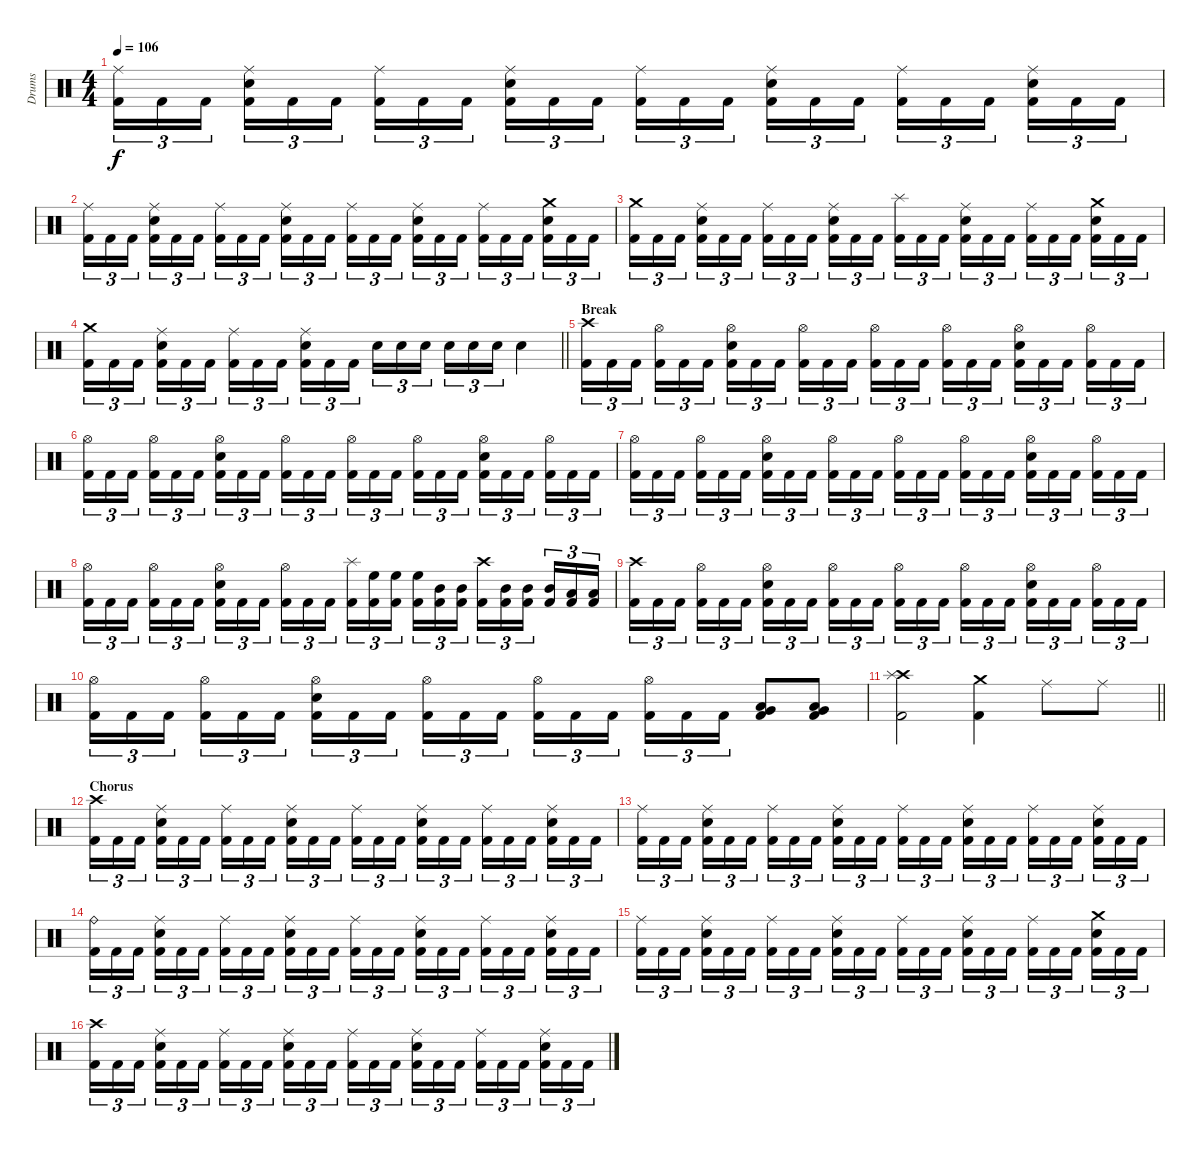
\track ("Drums" "Drums") {instrument percussion}
\staff {score}
\articulation defaults
\ts (4 4)
\tempo 106
\clef neutral
\ks c
("Ride (middle)" "Kick (hit) 2").16{tu (3 2) dy f} "Kick (hit) 2".16{tu (3 2)} "Kick (hit) 2".16{tu (3 2)} ("Ride (middle)" "Electric Snare (hit)" "Kick (hit) 2").16{tu (3 2)} "Kick (hit) 2".16{tu (3 2)} "Kick (hit) 2".16{tu (3 2)} ("Ride (middle)" "Kick (hit) 2").16{tu (3 2)} "Kick (hit) 2".16{tu (3 2)} "Kick (hit) 2".16{tu (3 2)} ("Ride (middle)" "Electric Snare (hit)" "Kick (hit) 2").16{tu (3 2)} "Kick (hit) 2".16{tu (3 2)} "Kick (hit) 2".16{tu (3 2)} ("Ride (middle)" "Kick (hit) 2").16{tu (3 2)} "Kick (hit) 2".16{tu (3 2)} "Kick (hit) 2".16{tu (3 2)} ("Ride (middle)" "Electric Snare (hit)" "Kick (hit) 2").16{tu (3 2)} "Kick (hit) 2".16{tu (3 2)} "Kick (hit) 2".16{tu (3 2)} ("Ride (middle)" "Kick (hit) 2").16{tu (3 2)} "Kick (hit) 2".16{tu (3 2)} "Kick (hit) 2".16{tu (3 2)} ("Ride (middle)" "Electric Snare (hit)" "Kick (hit) 2").16{tu (3 2)} "Kick (hit) 2".16{tu (3 2)} "Kick (hit) 2".16{tu (3 2)} |
("Ride (middle)" "Kick (hit) 2").16{tu (3 2)} "Kick (hit) 2".16{tu (3 2)} "Kick (hit) 2".16{tu (3 2)} ("Ride (middle)" "Electric Snare (hit)" "Kick (hit) 2").16{tu (3 2)} "Kick (hit) 2".16{tu (3 2)} "Kick (hit) 2".16{tu (3 2)} ("Ride (middle)" "Kick (hit) 2").16{tu (3 2)} "Kick (hit) 2".16{tu (3 2)} "Kick (hit) 2".16{tu (3 2)} ("Ride (middle)" "Electric Snare (hit)" "Kick (hit) 2").16{tu (3 2)} "Kick (hit) 2".16{tu (3 2)} "Kick (hit) 2".16{tu (3 2)} ("Ride (middle)" "Kick (hit) 2").16{tu (3 2)} "Kick (hit) 2".16{tu (3 2)} "Kick (hit) 2".16{tu (3 2)} ("Ride (middle)" "Electric Snare (hit)" "Kick (hit) 2").16{tu (3 2)} "Kick (hit) 2".16{tu (3 2)} "Kick (hit) 2".16{tu (3 2)} ("Ride (middle)" "Kick (hit) 2").16{tu (3 2)} "Kick (hit) 2".16{tu (3 2)} "Kick (hit) 2".16{tu (3 2)} ("Crash medium (hit)" "Electric Snare (hit)" "Kick (hit) 2").16{tu (3 2)} "Kick (hit) 2".16{tu (3 2)} "Kick (hit) 2".16{tu (3 2)} |
("Crash medium (hit)" "Kick (hit) 2").16{tu (3 2)} "Kick (hit) 2".16{tu (3 2)} "Kick (hit) 2".16{tu (3 2)} ("Ride (middle)" "Electric Snare (hit)" "Kick (hit) 2").16{tu (3 2)} "Kick (hit) 2".16{tu (3 2)} "Kick (hit) 2".16{tu (3 2)} ("Ride (middle)" "Kick (hit) 2").16{tu (3 2)} "Kick (hit) 2".16{tu (3 2)} "Kick (hit) 2".16{tu (3 2)} ("Ride (middle)" "Electric Snare (hit)" "Kick (hit) 2").16{tu (3 2)} "Kick (hit) 2".16{tu (3 2)} "Kick (hit) 2".16{tu (3 2)} ("Splash (hit)" "Kick (hit) 2").16{tu (3 2)} "Kick (hit) 2".16{tu (3 2)} "Kick (hit) 2".16{tu (3 2)} ("Ride (middle)" "Electric Snare (hit)" "Kick (hit) 2").16{tu (3 2)} "Kick (hit) 2".16{tu (3 2)} "Kick (hit) 2".16{tu (3 2)} ("Ride (middle)" "Kick (hit) 2").16{tu (3 2)} "Kick (hit) 2".16{tu (3 2)} "Kick (hit) 2".16{tu (3 2)} ("Crash medium (hit)" "Electric Snare (hit)" "Kick (hit) 2").16{tu (3 2)} "Kick (hit) 2".16{tu (3 2)} "Kick (hit) 2".16{tu (3 2)} |
\barLineRight lightlight
("Crash medium (hit)" "Kick (hit) 2").16{tu (3 2)} "Kick (hit) 2".16{tu (3 2)} "Kick (hit) 2".16{tu (3 2)} ("Ride (middle)" "Electric Snare (hit)" "Kick (hit) 2").16{tu (3 2)} "Kick (hit) 2".16{tu (3 2)} "Kick (hit) 2".16{tu (3 2)} ("Ride (middle)" "Kick (hit) 2").16{tu (3 2)} "Kick (hit) 2".16{tu (3 2)} "Kick (hit) 2".16{tu (3 2)} ("Ride (middle)" "Electric Snare (hit)" "Kick (hit) 2").16{tu (3 2)} "Kick (hit) 2".16{tu (3 2)} "Kick (hit) 2".16{tu (3 2)} "Electric Snare (hit)".16{tu (3 2)} "Electric Snare (hit)".16{tu (3 2)} "Electric Snare (hit)".16{tu (3 2)} "Electric Snare (hit)".16{tu (3 2)} "Electric Snare (hit)".16{tu (3 2)} "Electric Snare (hit)".16{tu (3 2)} "Electric Snare (hit)".4 |
\section ("" "Break")
("Crash high (hit)" "Kick (hit) 2").16{tu (3 2)} "Kick (hit) 2".16{tu (3 2)} "Kick (hit) 2".16{tu (3 2)} ("Hi-Hat (open)" "Kick (hit) 2").16{tu (3 2)} "Kick (hit) 2".16{tu (3 2)} "Kick (hit) 2".16{tu (3 2)} ("Hi-Hat (open)" "Electric Snare (hit)" "Kick (hit) 2").16{tu (3 2)} "Kick (hit) 2".16{tu (3 2)} "Kick (hit) 2".16{tu (3 2)} ("Hi-Hat (open)" "Kick (hit) 2").16{tu (3 2)} "Kick (hit) 2".16{tu (3 2)} "Kick (hit) 2".16{tu (3 2)} ("Hi-Hat (open)" "Kick (hit) 2").16{tu (3 2)} "Kick (hit) 2".16{tu (3 2)} "Kick (hit) 2".16{tu (3 2)} ("Hi-Hat (open)" "Kick (hit) 2").16{tu (3 2)} "Kick (hit) 2".16{tu (3 2)} "Kick (hit) 2".16{tu (3 2)} ("Hi-Hat (open)" "Electric Snare (hit)" "Kick (hit) 2").16{tu (3 2)} "Kick (hit) 2".16{tu (3 2)} "Kick (hit) 2".16{tu (3 2)} ("Hi-Hat (open)" "Kick (hit) 2").16{tu (3 2)} "Kick (hit) 2".16{tu (3 2)} "Kick (hit) 2".16{tu (3 2)} |
("Hi-Hat (open)" "Kick (hit) 2").16{tu (3 2)} "Kick (hit) 2".16{tu (3 2)} "Kick (hit) 2".16{tu (3 2)} ("Hi-Hat (open)" "Kick (hit) 2").16{tu (3 2)} "Kick (hit) 2".16{tu (3 2)} "Kick (hit) 2".16{tu (3 2)} ("Hi-Hat (open)" "Electric Snare (hit)" "Kick (hit) 2").16{tu (3 2)} "Kick (hit) 2".16{tu (3 2)} "Kick (hit) 2".16{tu (3 2)} ("Hi-Hat (open)" "Kick (hit) 2").16{tu (3 2)} "Kick (hit) 2".16{tu (3 2)} "Kick (hit) 2".16{tu (3 2)} ("Hi-Hat (open)" "Kick (hit) 2").16{tu (3 2)} "Kick (hit) 2".16{tu (3 2)} "Kick (hit) 2".16{tu (3 2)} ("Hi-Hat (open)" "Kick (hit) 2").16{tu (3 2)} "Kick (hit) 2".16{tu (3 2)} "Kick (hit) 2".16{tu (3 2)} ("Hi-Hat (open)" "Electric Snare (hit)" "Kick (hit) 2").16{tu (3 2)} "Kick (hit) 2".16{tu (3 2)} "Kick (hit) 2".16{tu (3 2)} ("Hi-Hat (open)" "Kick (hit) 2").16{tu (3 2)} "Kick (hit) 2".16{tu (3 2)} "Kick (hit) 2".16{tu (3 2)} |
("Hi-Hat (open)" "Kick (hit) 2").16{tu (3 2)} "Kick (hit) 2".16{tu (3 2)} "Kick (hit) 2".16{tu (3 2)} ("Hi-Hat (open)" "Kick (hit) 2").16{tu (3 2)} "Kick (hit) 2".16{tu (3 2)} "Kick (hit) 2".16{tu (3 2)} ("Hi-Hat (open)" "Electric Snare (hit)" "Kick (hit) 2").16{tu (3 2)} "Kick (hit) 2".16{tu (3 2)} "Kick (hit) 2".16{tu (3 2)} ("Hi-Hat (open)" "Kick (hit) 2").16{tu (3 2)} "Kick (hit) 2".16{tu (3 2)} "Kick (hit) 2".16{tu (3 2)} ("Hi-Hat (open)" "Kick (hit) 2").16{tu (3 2)} "Kick (hit) 2".16{tu (3 2)} "Kick (hit) 2".16{tu (3 2)} ("Hi-Hat (open)" "Kick (hit) 2").16{tu (3 2)} "Kick (hit) 2".16{tu (3 2)} "Kick (hit) 2".16{tu (3 2)} ("Hi-Hat (open)" "Electric Snare (hit)" "Kick (hit) 2").16{tu (3 2)} "Kick (hit) 2".16{tu (3 2)} "Kick (hit) 2".16{tu (3 2)} ("Hi-Hat (open)" "Kick (hit) 2").16{tu (3 2)} "Kick (hit) 2".16{tu (3 2)} "Kick (hit) 2".16{tu (3 2)} |
("Hi-Hat (open)" "Kick (hit) 2").16{tu (3 2)} "Kick (hit) 2".16{tu (3 2)} "Kick (hit) 2".16{tu (3 2)} ("Hi-Hat (open)" "Kick (hit) 2").16{tu (3 2)} "Kick (hit) 2".16{tu (3 2)} "Kick (hit) 2".16{tu (3 2)} ("Hi-Hat (open)" "Electric Snare (hit)" "Kick (hit) 2").16{tu (3 2)} "Kick (hit) 2".16{tu (3 2)} "Kick (hit) 2".16{tu (3 2)} ("Hi-Hat (open)" "Kick (hit) 2").16{tu (3 2)} "Kick (hit) 2".16{tu (3 2)} "Kick (hit) 2".16{tu (3 2)} ("Splash (hit)" "Kick (hit) 2").16{tu (3 2)} ("High Floor Tom (hit)" "Kick (hit) 2").16{tu (3 2)} ("High Floor Tom (hit)" "Kick (hit) 2").16{tu (3 2)} ("High Floor Tom (hit)" "Kick (hit) 2").16{tu (3 2)} ("Mid Tom (hit)" "Kick (hit) 2").16{tu (3 2)} ("Mid Tom (hit)" "Kick (hit) 2").16{tu (3 2)} ("Crash high (hit)" "Kick (hit) 2").16{tu (3 2)} ("Mid Tom (hit)" "Kick (hit) 2").16{tu (3 2)} ("Mid Tom (hit)" "Kick (hit) 2").16{tu (3 2)} ("Mid Tom (hit)" "Kick (hit) 2").16{tu (3 2)} ("Low Tom (hit)" "Kick (hit) 2").16{tu (3 2)} ("Low Tom (hit)" "Kick (hit) 2").16{tu (3 2)} |
("Crash high (hit)" "Kick (hit) 2").16{tu (3 2)} "Kick (hit) 2".16{tu (3 2)} "Kick (hit) 2".16{tu (3 2)} ("Hi-Hat (open)" "Kick (hit) 2").16{tu (3 2)} "Kick (hit) 2".16{tu (3 2)} "Kick (hit) 2".16{tu (3 2)} ("Hi-Hat (open)" "Electric Snare (hit)" "Kick (hit) 2").16{tu (3 2)} "Kick (hit) 2".16{tu (3 2)} "Kick (hit) 2".16{tu (3 2)} ("Hi-Hat (open)" "Kick (hit) 2").16{tu (3 2)} "Kick (hit) 2".16{tu (3 2)} "Kick (hit) 2".16{tu (3 2)} ("Hi-Hat (open)" "Kick (hit) 2").16{tu (3 2)} "Kick (hit) 2".16{tu (3 2)} "Kick (hit) 2".16{tu (3 2)} ("Hi-Hat (open)" "Kick (hit) 2").16{tu (3 2)} "Kick (hit) 2".16{tu (3 2)} "Kick (hit) 2".16{tu (3 2)} ("Hi-Hat (open)" "Electric Snare (hit)" "Kick (hit) 2").16{tu (3 2)} "Kick (hit) 2".16{tu (3 2)} "Kick (hit) 2".16{tu (3 2)} ("Hi-Hat (open)" "Kick (hit) 2").16{tu (3 2)} "Kick (hit) 2".16{tu (3 2)} "Kick (hit) 2".16{tu (3 2)} |
("Hi-Hat (open)" "Kick (hit) 2").16{tu (3 2)} "Kick (hit) 2".16{tu (3 2)} "Kick (hit) 2".16{tu (3 2)} ("Hi-Hat (open)" "Kick (hit) 2").16{tu (3 2)} "Kick (hit) 2".16{tu (3 2)} "Kick (hit) 2".16{tu (3 2)} ("Hi-Hat (open)" "Electric Snare (hit)" "Kick (hit) 2").16{tu (3 2)} "Kick (hit) 2".16{tu (3 2)} "Kick (hit) 2".16{tu (3 2)} ("Hi-Hat (open)" "Kick (hit) 2").16{tu (3 2)} "Kick (hit) 2".16{tu (3 2)} "Kick (hit) 2".16{tu (3 2)} ("Hi-Hat (open)" "Kick (hit) 2").16{tu (3 2)} "Kick (hit) 2".16{tu (3 2)} "Kick (hit) 2".16{tu (3 2)} ("Hi-Hat (open)" "Kick (hit) 2").16{tu (3 2)} "Kick (hit) 2".16{tu (3 2)} "Kick (hit) 2".16{tu (3 2)} ("Low Tom (hit)" "Very Low Tom (hit)" "Kick (hit) 2").8 ("Low Tom (hit)" "Very Low Tom (hit)" "Kick (hit) 2").8 |
\barLineRight lightlight
("Crash high (hit)" "Splash (hit)" "Kick (hit) 2").2 ("Crash medium (hit)" "Kick (hit) 2").4 "Ride (middle)".8 "Ride (middle)".8 |
\section ("" "Chorus")
("Crash high (hit)" "Kick (hit) 2").16{tu (3 2)} "Kick (hit) 2".16{tu (3 2)} "Kick (hit) 2".16{tu (3 2)} ("Ride (middle)" "Electric Snare (hit)" "Kick (hit) 2").16{tu (3 2)} "Kick (hit) 2".16{tu (3 2)} "Kick (hit) 2".16{tu (3 2)} ("Ride (middle)" "Kick (hit) 2").16{tu (3 2)} "Kick (hit) 2".16{tu (3 2)} "Kick (hit) 2".16{tu (3 2)} ("Ride (middle)" "Electric Snare (hit)" "Kick (hit) 2").16{tu (3 2)} "Kick (hit) 2".16{tu (3 2)} "Kick (hit) 2".16{tu (3 2)} ("Ride (middle)" "Kick (hit) 2").16{tu (3 2)} "Kick (hit) 2".16{tu (3 2)} "Kick (hit) 2".16{tu (3 2)} ("Ride (middle)" "Electric Snare (hit)" "Kick (hit) 2").16{tu (3 2)} "Kick (hit) 2".16{tu (3 2)} "Kick (hit) 2".16{tu (3 2)} ("Ride (middle)" "Kick (hit) 2").16{tu (3 2)} "Kick (hit) 2".16{tu (3 2)} "Kick (hit) 2".16{tu (3 2)} ("Ride (middle)" "Electric Snare (hit)" "Kick (hit) 2").16{tu (3 2)} "Kick (hit) 2".16{tu (3 2)} "Kick (hit) 2".16{tu (3 2)} |
("Ride (middle)" "Kick (hit) 2").16{tu (3 2)} "Kick (hit) 2".16{tu (3 2)} "Kick (hit) 2".16{tu (3 2)} ("Ride (middle)" "Electric Snare (hit)" "Kick (hit) 2").16{tu (3 2)} "Kick (hit) 2".16{tu (3 2)} "Kick (hit) 2".16{tu (3 2)} ("Ride (middle)" "Kick (hit) 2").16{tu (3 2)} "Kick (hit) 2".16{tu (3 2)} "Kick (hit) 2".16{tu (3 2)} ("Ride (middle)" "Electric Snare (hit)" "Kick (hit) 2").16{tu (3 2)} "Kick (hit) 2".16{tu (3 2)} "Kick (hit) 2".16{tu (3 2)} ("Ride (middle)" "Kick (hit) 2").16{tu (3 2)} "Kick (hit) 2".16{tu (3 2)} "Kick (hit) 2".16{tu (3 2)} ("Ride (middle)" "Electric Snare (hit)" "Kick (hit) 2").16{tu (3 2)} "Kick (hit) 2".16{tu (3 2)} "Kick (hit) 2".16{tu (3 2)} ("Ride (middle)" "Kick (hit) 2").16{tu (3 2)} "Kick (hit) 2".16{tu (3 2)} "Kick (hit) 2".16{tu (3 2)} ("Ride (middle)" "Electric Snare (hit)" "Kick (hit) 2").16{tu (3 2)} "Kick (hit) 2".16{tu (3 2)} "Kick (hit) 2".16{tu (3 2)} |
("Ride (bell)" "Kick (hit) 2").16{tu (3 2)} "Kick (hit) 2".16{tu (3 2)} "Kick (hit) 2".16{tu (3 2)} ("Ride (middle)" "Electric Snare (hit)" "Kick (hit) 2").16{tu (3 2)} "Kick (hit) 2".16{tu (3 2)} "Kick (hit) 2".16{tu (3 2)} ("Ride (middle)" "Kick (hit) 2").16{tu (3 2)} "Kick (hit) 2".16{tu (3 2)} "Kick (hit) 2".16{tu (3 2)} ("Ride (middle)" "Electric Snare (hit)" "Kick (hit) 2").16{tu (3 2)} "Kick (hit) 2".16{tu (3 2)} "Kick (hit) 2".16{tu (3 2)} ("Ride (middle)" "Kick (hit) 2").16{tu (3 2)} "Kick (hit) 2".16{tu (3 2)} "Kick (hit) 2".16{tu (3 2)} ("Ride (middle)" "Electric Snare (hit)" "Kick (hit) 2").16{tu (3 2)} "Kick (hit) 2".16{tu (3 2)} "Kick (hit) 2".16{tu (3 2)} ("Ride (middle)" "Kick (hit) 2").16{tu (3 2)} "Kick (hit) 2".16{tu (3 2)} "Kick (hit) 2".16{tu (3 2)} ("Ride (middle)" "Electric Snare (hit)" "Kick (hit) 2").16{tu (3 2)} "Kick (hit) 2".16{tu (3 2)} "Kick (hit) 2".16{tu (3 2)} |
("Ride (middle)" "Kick (hit) 2").16{tu (3 2)} "Kick (hit) 2".16{tu (3 2)} "Kick (hit) 2".16{tu (3 2)} ("Ride (middle)" "Electric Snare (hit)" "Kick (hit) 2").16{tu (3 2)} "Kick (hit) 2".16{tu (3 2)} "Kick (hit) 2".16{tu (3 2)} ("Ride (middle)" "Kick (hit) 2").16{tu (3 2)} "Kick (hit) 2".16{tu (3 2)} "Kick (hit) 2".16{tu (3 2)} ("Ride (middle)" "Electric Snare (hit)" "Kick (hit) 2").16{tu (3 2)} "Kick (hit) 2".16{tu (3 2)} "Kick (hit) 2".16{tu (3 2)} ("Ride (middle)" "Kick (hit) 2").16{tu (3 2)} "Kick (hit) 2".16{tu (3 2)} "Kick (hit) 2".16{tu (3 2)} ("Ride (middle)" "Electric Snare (hit)" "Kick (hit) 2").16{tu (3 2)} "Kick (hit) 2".16{tu (3 2)} "Kick (hit) 2".16{tu (3 2)} ("Ride (middle)" "Kick (hit) 2").16{tu (3 2)} "Kick (hit) 2".16{tu (3 2)} "Kick (hit) 2".16{tu (3 2)} ("Crash medium (hit)" "Electric Snare (hit)" "Kick (hit) 2").16{tu (3 2)} "Kick (hit) 2".16{tu (3 2)} "Kick (hit) 2".16{tu (3 2)} |
("Crash high (hit)" "Kick (hit) 2").16{tu (3 2)} "Kick (hit) 2".16{tu (3 2)} "Kick (hit) 2".16{tu (3 2)} ("Ride (middle)" "Electric Snare (hit)" "Kick (hit) 2").16{tu (3 2)} "Kick (hit) 2".16{tu (3 2)} "Kick (hit) 2".16{tu (3 2)} ("Ride (middle)" "Kick (hit) 2").16{tu (3 2)} "Kick (hit) 2".16{tu (3 2)} "Kick (hit) 2".16{tu (3 2)} ("Ride (middle)" "Electric Snare (hit)" "Kick (hit) 2").16{tu (3 2)} "Kick (hit) 2".16{tu (3 2)} "Kick (hit) 2".16{tu (3 2)} ("Ride (middle)" "Kick (hit) 2").16{tu (3 2)} "Kick (hit) 2".16{tu (3 2)} "Kick (hit) 2".16{tu (3 2)} ("Ride (middle)" "Electric Snare (hit)" "Kick (hit) 2").16{tu (3 2)} "Kick (hit) 2".16{tu (3 2)} "Kick (hit) 2".16{tu (3 2)} ("Ride (middle)" "Kick (hit) 2").16{tu (3 2)} "Kick (hit) 2".16{tu (3 2)} "Kick (hit) 2".16{tu (3 2)} ("Ride (middle)" "Electric Snare (hit)" "Kick (hit) 2").16{tu (3 2)} "Kick (hit) 2".16{tu (3 2)} "Kick (hit) 2".16{tu (3 2)}
